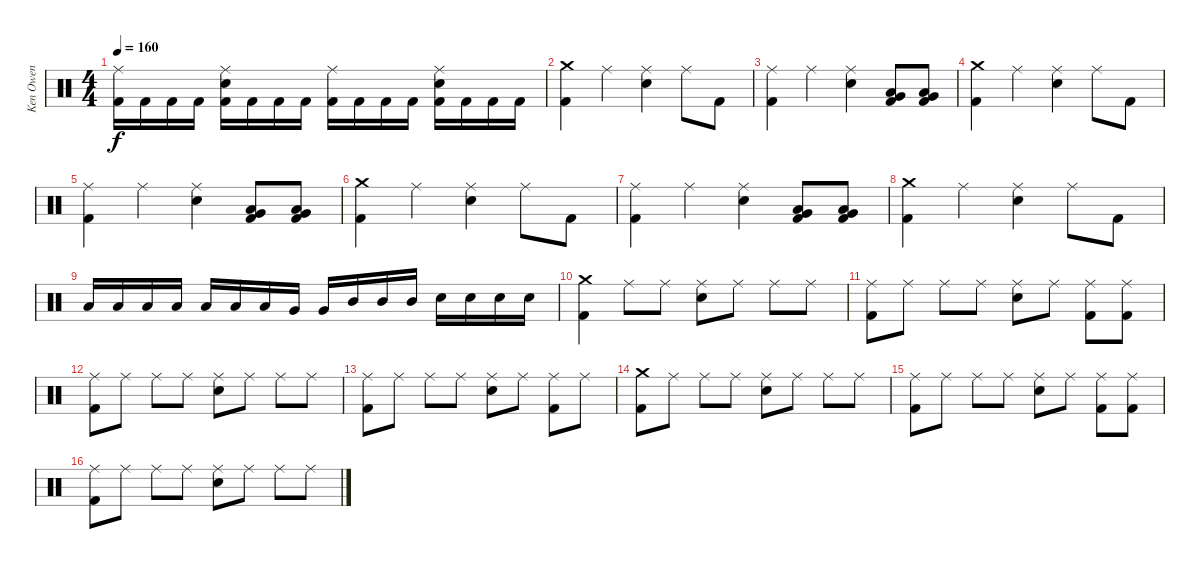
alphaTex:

\track ("Ken Owen" "Ken Owen") {instrument percussion}
\staff {score}
\articulation defaults
\ts (4 4)
\tempo 160
\clef neutral
\ks c
("Ride (middle)" "Kick (hit) 2").16{dy f} "Kick (hit) 2".16 "Kick (hit) 2".16 "Kick (hit) 2".16 ("Ride (middle)" "Snare (hit) 2" "Kick (hit) 2").16 "Kick (hit) 2".16 "Kick (hit) 2".16 "Kick (hit) 2".16 ("Ride (middle)" "Kick (hit) 2").16 "Kick (hit) 2".16 "Kick (hit) 2".16 "Kick (hit) 2".16 ("Ride (middle)" "Snare (hit) 2" "Kick (hit) 2").16 "Kick (hit) 2".16 "Kick (hit) 2".16 "Kick (hit) 2".16 |
("Crash medium (hit)" "Kick (hit) 2").4 "Ride (middle)".4 ("Ride (middle)" "Snare (hit) 2").4 "Ride (middle)".8 "Kick (hit) 2".8 |
("Ride (middle)" "Kick (hit) 2").4 "Ride (middle)".4 ("Ride (middle)" "Snare (hit) 2").4 ("Low Floor Tom (hit)" "Very Low Tom (hit)" "Kick (hit) 2").8 ("Low Floor Tom (hit)" "Very Low Tom (hit)" "Kick (hit) 2").8 |
("Crash medium (hit)" "Kick (hit) 2").4 "Ride (middle)".4 ("Ride (middle)" "Snare (hit) 2").4 "Ride (middle)".8 "Kick (hit) 2".8 |
("Ride (middle)" "Kick (hit) 2").4 "Ride (middle)".4 ("Ride (middle)" "Snare (hit) 2").4 ("Low Floor Tom (hit)" "Very Low Tom (hit)" "Kick (hit) 2").8 ("Low Floor Tom (hit)" "Very Low Tom (hit)" "Kick (hit) 2").8 |
("Crash medium (hit)" "Kick (hit) 2").4 "Ride (middle)".4 ("Ride (middle)" "Snare (hit) 2").4 "Ride (middle)".8 "Kick (hit) 2".8 |
("Ride (middle)" "Kick (hit) 2").4 "Ride (middle)".4 ("Ride (middle)" "Snare (hit) 2").4 ("Low Floor Tom (hit)" "Very Low Tom (hit)" "Kick (hit) 2").8 ("Low Floor Tom (hit)" "Very Low Tom (hit)" "Kick (hit) 2").8 |
("Crash medium (hit)" "Kick (hit) 2").4 "Ride (middle)".4 ("Ride (middle)" "Snare (hit) 2").4 "Ride (middle)".8 "Kick (hit) 2".8 |
"Low Floor Tom (hit)".16 "Low Floor Tom (hit)".16 "Low Floor Tom (hit)".16 "Low Floor Tom (hit)".16 "Low Tom (hit)".16 "Low Tom (hit)".16 "Low Tom (hit)".16 "Very Low Tom (hit)".16 "Very Low Tom (hit)".16 "Mid Tom (hit)".16 "Mid Tom (hit)".16 "Mid Tom (hit)".16 "Snare (hit) 2".16 "Snare (hit) 2".16 "Snare (hit) 2".16 "Snare (hit) 2".16 |
("Crash medium (hit)" "Kick (hit) 2").4 "Ride (middle)".8 "Ride (middle)".8 ("Ride (middle)" "Snare (hit) 2").8 "Ride (middle)".8 "Ride (middle)".8 "Ride (middle)".8 |
("Ride (middle)" "Kick (hit) 2").8 "Ride (middle)".8 "Ride (middle)".8 "Ride (middle)".8 ("Ride (middle)" "Snare (hit) 2").8 "Ride (middle)".8 ("Ride (middle)" "Kick (hit) 2").8 ("Ride (middle)" "Kick (hit) 2").8 |
("Ride (middle)" "Kick (hit) 2").8 "Ride (middle)".8 "Ride (middle)".8 "Ride (middle)".8 ("Ride (middle)" "Snare (hit) 2").8 "Ride (middle)".8 "Ride (middle)".8 "Ride (middle)".8 |
("Ride (middle)" "Kick (hit) 2").8 "Ride (middle)".8 "Ride (middle)".8 "Ride (middle)".8 ("Ride (middle)" "Snare (hit) 2").8 "Ride (middle)".8 ("Ride (middle)" "Kick (hit) 2").8 "Ride (middle)".8 |
("Crash medium (hit)" "Kick (hit) 2").8 "Ride (middle)".8 "Ride (middle)".8 "Ride (middle)".8 ("Ride (middle)" "Snare (hit) 2").8 "Ride (middle)".8 "Ride (middle)".8 "Ride (middle)".8 |
("Ride (middle)" "Kick (hit) 2").8 "Ride (middle)".8 "Ride (middle)".8 "Ride (middle)".8 ("Ride (middle)" "Snare (hit) 2").8 "Ride (middle)".8 ("Ride (middle)" "Kick (hit) 2").8 ("Ride (middle)" "Kick (hit) 2").8 |
("Ride (middle)" "Kick (hit) 2").8 "Ride (middle)".8 "Ride (middle)".8 "Ride (middle)".8 ("Ride (middle)" "Snare (hit) 2").8 "Ride (middle)".8 "Ride (middle)".8 "Ride (middle)".8
